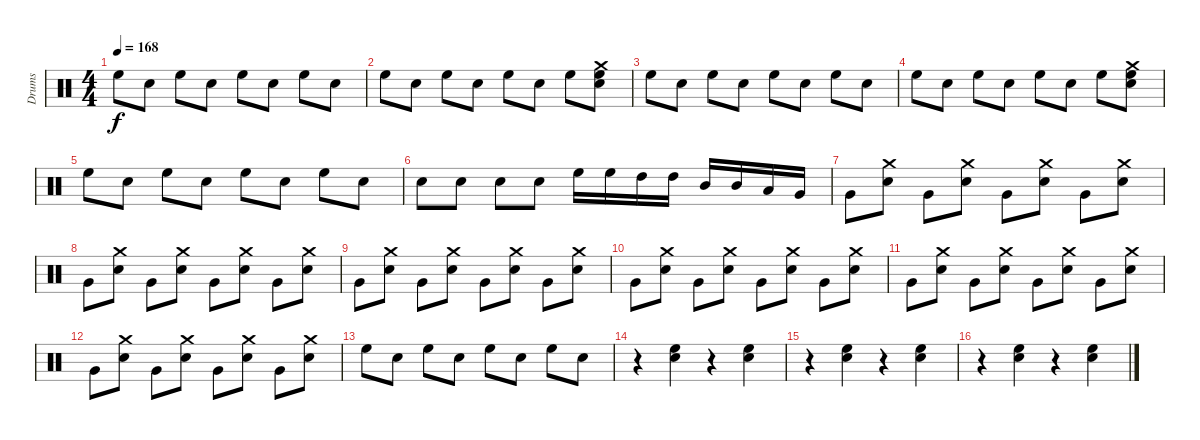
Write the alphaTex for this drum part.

\track ("Drums" "Drums") {instrument percussion}
\staff {score}
\articulation defaults
\ts (4 4)
\tempo 168
\clef neutral
\ks c "High Floor Tom (hit)".8{dy f} "Electric Snare (hit)".8 "High Floor Tom (hit)".8 "Electric Snare (hit)".8 "High Floor Tom (hit)".8 "Electric Snare (hit)".8 "High Floor Tom (hit)".8 "Electric Snare (hit)".8
|
"High Floor Tom (hit)".8 "Electric Snare (hit)".8 "High Floor Tom (hit)".8 "Electric Snare (hit)".8 "High Floor Tom (hit)".8 "Electric Snare (hit)".8 "High Floor Tom (hit)".8 ("Electric Snare (hit)" "Crash medium (hit)" "High Floor Tom (hit)").8 |
"High Floor Tom (hit)".8 "Electric Snare (hit)".8 "High Floor Tom (hit)".8 "Electric Snare (hit)".8 "High Floor Tom (hit)".8 "Electric Snare (hit)".8 "High Floor Tom (hit)".8 "Electric Snare (hit)".8 |
"High Floor Tom (hit)".8 "Electric Snare (hit)".8 "High Floor Tom (hit)".8 "Electric Snare (hit)".8 "High Floor Tom (hit)".8 "Electric Snare (hit)".8 "High Floor Tom (hit)".8 ("Electric Snare (hit)" "Crash medium (hit)" "High Floor Tom (hit)").8 |
"High Floor Tom (hit)".8 "Electric Snare (hit)".8 "High Floor Tom (hit)".8 "Electric Snare (hit)".8 "High Floor Tom (hit)".8 "Electric Snare (hit)".8 "High Floor Tom (hit)".8 "Electric Snare (hit)".8 |
"Electric Snare (hit)".8 "Electric Snare (hit)".8 "Electric Snare (hit)".8 "Electric Snare (hit)".8 "High Floor Tom (hit)".16 "High Floor Tom (hit)".16 "High Tom (hit)".16 "High Tom (hit)".16 "Mid Tom (hit)".16 "Mid Tom (hit)".16 "Low Tom (hit)".16 "Very Low Tom (hit)".16 |
"Very Low Tom (hit)".8 ("Crash medium (hit)" "Electric Snare (hit)").8 "Very Low Tom (hit)".8 ("Crash medium (hit)" "Electric Snare (hit)").8 "Very Low Tom (hit)".8 ("Crash medium (hit)" "Electric Snare (hit)").8 "Very Low Tom (hit)".8 ("Crash medium (hit)" "Electric Snare (hit)").8 |
"Very Low Tom (hit)".8 ("Electric Snare (hit)" "Crash medium (hit)").8 "Very Low Tom (hit)".8 ("Electric Snare (hit)" "Crash medium (hit)").8 "Very Low Tom (hit)".8 ("Electric Snare (hit)" "Crash medium (hit)").8 "Very Low Tom (hit)".8 ("Electric Snare (hit)" "Crash medium (hit)").8 |
"Very Low Tom (hit)".8 ("Crash medium (hit)" "Electric Snare (hit)").8 "Very Low Tom (hit)".8 ("Crash medium (hit)" "Electric Snare (hit)").8 "Very Low Tom (hit)".8 ("Crash medium (hit)" "Electric Snare (hit)").8 "Very Low Tom (hit)".8 ("Crash medium (hit)" "Electric Snare (hit)").8 |
"Very Low Tom (hit)".8 ("Electric Snare (hit)" "Crash medium (hit)").8 "Very Low Tom (hit)".8 ("Electric Snare (hit)" "Crash medium (hit)").8 "Very Low Tom (hit)".8 ("Electric Snare (hit)" "Crash medium (hit)").8 "Very Low Tom (hit)".8 ("Electric Snare (hit)" "Crash medium (hit)").8 |
"Very Low Tom (hit)".8 ("Crash medium (hit)" "Electric Snare (hit)").8 "Very Low Tom (hit)".8 ("Crash medium (hit)" "Electric Snare (hit)").8 "Very Low Tom (hit)".8 ("Crash medium (hit)" "Electric Snare (hit)").8 "Very Low Tom (hit)".8 ("Crash medium (hit)" "Electric Snare (hit)").8 |
"Very Low Tom (hit)".8 ("Electric Snare (hit)" "Crash medium (hit)").8 "Very Low Tom (hit)".8 ("Electric Snare (hit)" "Crash medium (hit)").8 "Very Low Tom (hit)".8 ("Electric Snare (hit)" "Crash medium (hit)").8 "Very Low Tom (hit)".8 ("Electric Snare (hit)" "Crash medium (hit)").8 |
"High Floor Tom (hit)".8 "Electric Snare (hit)".8 "High Floor Tom (hit)".8 "Electric Snare (hit)".8 "High Floor Tom (hit)".8 "Electric Snare (hit)".8 "High Floor Tom (hit)".8 "Electric Snare (hit)".8 |
r.4 ("Electric Snare (hit)" "High Floor Tom (hit)").4 r.4 ("Electric Snare (hit)" "High Floor Tom (hit)").4 |
r.4 ("Electric Snare (hit)" "High Floor Tom (hit)").4 r.4 ("Electric Snare (hit)" "High Floor Tom (hit)").4 |
r.4 ("Electric Snare (hit)" "High Floor Tom (hit)").4 r.4 ("Electric Snare (hit)" "High Floor Tom (hit)").4
